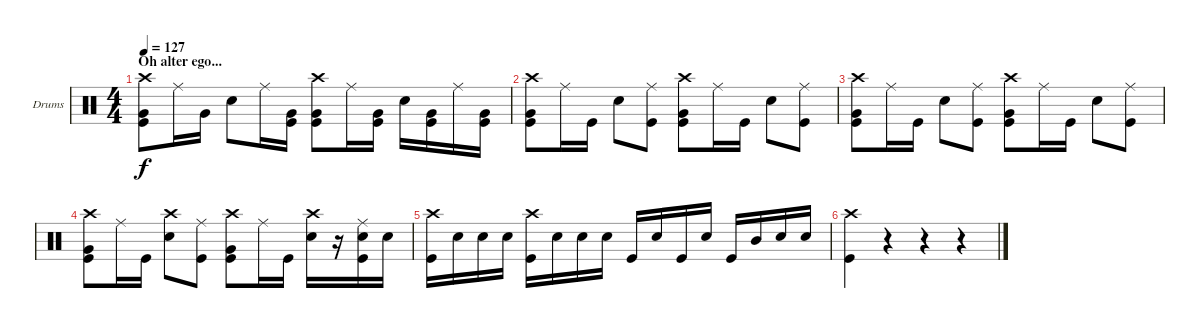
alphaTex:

\bracketExtendMode groupsimilarinstruments
\firstSystemTrackNameOrientation horizontal
\otherSystemsTrackNameOrientation horizontal
\track ("Drumkit" "Drums") {instrument percussion}
\staff {score}
\articulation defaults
\ts (4 4)
\section ("" "Oh alter ego...")
\tempo 127
\clef neutral
\ks c
("Kick (hit)" "Crash high (hit)" "Very Low Tom (hit)").8{dy f} "Ride (middle)".16 "Very Low Tom (hit)".16 "Snare (hit) 2".8 "Ride (middle)".16 ("Kick (hit)" "Very Low Tom (hit)").16 ("Kick (hit)" "Crash high (hit)" "Very Low Tom (hit)").8 "Ride (middle)".16 ("Kick (hit)" "Very Low Tom (hit)").16 "Snare (hit) 2".16 ("Kick (hit)" "Very Low Tom (hit)").16 "Ride (middle)".16 ("Kick (hit)" "Very Low Tom (hit)").16 |
("Kick (hit)" "Crash high (hit)" "Very Low Tom (hit)").8 "Ride (middle)".16 "Kick (hit)".16 "Snare (hit) 2".8 ("Ride (middle)" "Kick (hit)").8 ("Kick (hit)" "Crash high (hit)" "Very Low Tom (hit)").8 "Ride (middle)".16 "Kick (hit)".16 "Snare (hit) 2".8 ("Ride (middle)" "Kick (hit)").8 |
("Kick (hit)" "Crash high (hit)" "Very Low Tom (hit)").8 "Ride (middle)".16 "Kick (hit)".16 "Snare (hit) 2".8 ("Ride (middle)" "Kick (hit)").8 ("Kick (hit)" "Crash high (hit)" "Very Low Tom (hit)").8 "Ride (middle)".16 "Kick (hit)".16 "Snare (hit) 2".8 ("Ride (middle)" "Kick (hit)").8 |
("Kick (hit)" "Crash high (hit)" "Very Low Tom (hit)").8 "Ride (middle)".16 "Kick (hit)".16 ("Snare (hit) 2" "Crash high (hit)").8 ("Ride (middle)" "Kick (hit)").8 ("Kick (hit)" "Crash high (hit)" "Very Low Tom (hit)").8 "Ride (middle)".16 "Kick (hit)".16 ("Snare (hit) 2" "Crash high (hit)").16 r.16 ("Ride (middle)" "Kick (hit)" "Snare (hit) 2").16 "Snare (hit) 2".16 |
("Kick (hit)" "Crash high (hit)").16 "Snare (hit) 2".16 "Snare (hit) 2".16 "Snare (hit) 2".16 ("Kick (hit)" "Crash high (hit)").16 "Snare (hit) 2".16 "Snare (hit) 2".16 "Snare (hit) 2".16 "Kick (hit)".16 "Snare (hit) 2".16 "Kick (hit)".16 "Snare (hit) 2".16 "Kick (hit)".16 "Mid Tom (hit)".16 "Snare (hit) 2".16 "Snare (hit) 2".16 |
("Kick (hit)" "Crash high (hit)").4 r.4 r.4 r.4
